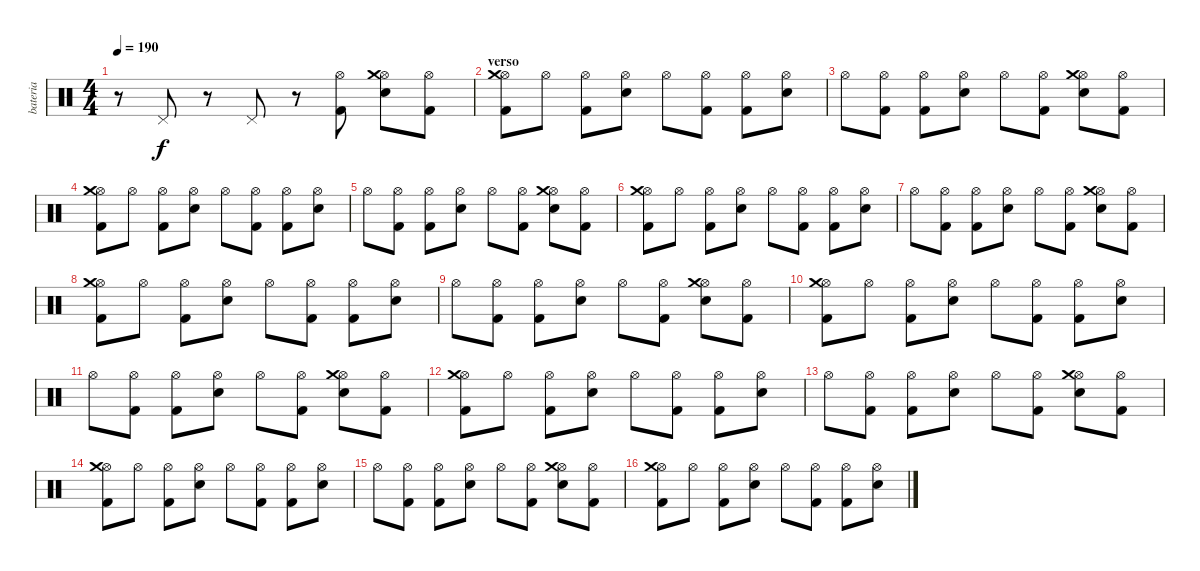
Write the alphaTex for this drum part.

\track ("bateria" "bateria") {instrument percussion}
\staff {score}
\articulation defaults
\ts (4 4)
\tempo 190
\clef neutral
\ks c
r.8{dy f} "Pedal Hi-Hat (hit)".8 r.8 "Pedal Hi-Hat (hit)".8 r.8 ("Hi-Hat (open)" "Kick (hit) 2").8 ("Hi-Hat (open)" "Electric Snare (hit)" "Crash medium (hit)").8 ("Hi-Hat (open)" "Kick (hit) 2").8 |
\section ("" "verso")
("Hi-Hat (open)" "Kick (hit) 2" "Crash medium (hit)").8 "Hi-Hat (open)".8 ("Hi-Hat (open)" "Kick (hit) 2").8 ("Hi-Hat (open)" "Electric Snare (hit)").8 "Hi-Hat (open)".8 ("Hi-Hat (open)" "Kick (hit) 2").8 ("Hi-Hat (open)" "Kick (hit) 2").8 ("Hi-Hat (open)" "Electric Snare (hit)").8 |
"Hi-Hat (open)".8 ("Hi-Hat (open)" "Kick (hit) 2").8 ("Hi-Hat (open)" "Kick (hit) 2").8 ("Hi-Hat (open)" "Electric Snare (hit)").8 "Hi-Hat (open)".8 ("Hi-Hat (open)" "Kick (hit) 2").8 ("Hi-Hat (open)" "Electric Snare (hit)" "Crash medium (hit)").8 ("Hi-Hat (open)" "Kick (hit) 2").8 |
("Hi-Hat (open)" "Kick (hit) 2" "Crash medium (hit)").8 "Hi-Hat (open)".8 ("Hi-Hat (open)" "Kick (hit) 2").8 ("Hi-Hat (open)" "Electric Snare (hit)").8 "Hi-Hat (open)".8 ("Hi-Hat (open)" "Kick (hit) 2").8 ("Hi-Hat (open)" "Kick (hit) 2").8 ("Hi-Hat (open)" "Electric Snare (hit)").8 |
"Hi-Hat (open)".8 ("Hi-Hat (open)" "Kick (hit) 2").8 ("Hi-Hat (open)" "Kick (hit) 2").8 ("Hi-Hat (open)" "Electric Snare (hit)").8 "Hi-Hat (open)".8 ("Hi-Hat (open)" "Kick (hit) 2").8 ("Hi-Hat (open)" "Electric Snare (hit)" "Crash medium (hit)").8 ("Hi-Hat (open)" "Kick (hit) 2").8 |
("Hi-Hat (open)" "Kick (hit) 2" "Crash medium (hit)").8 "Hi-Hat (open)".8 ("Hi-Hat (open)" "Kick (hit) 2").8 ("Hi-Hat (open)" "Electric Snare (hit)").8 "Hi-Hat (open)".8 ("Hi-Hat (open)" "Kick (hit) 2").8 ("Hi-Hat (open)" "Kick (hit) 2").8 ("Hi-Hat (open)" "Electric Snare (hit)").8 |
"Hi-Hat (open)".8 ("Hi-Hat (open)" "Kick (hit) 2").8 ("Hi-Hat (open)" "Kick (hit) 2").8 ("Hi-Hat (open)" "Electric Snare (hit)").8 "Hi-Hat (open)".8 ("Hi-Hat (open)" "Kick (hit) 2").8 ("Hi-Hat (open)" "Electric Snare (hit)" "Crash medium (hit)").8 ("Hi-Hat (open)" "Kick (hit) 2").8 |
("Hi-Hat (open)" "Kick (hit) 2" "Crash medium (hit)").8 "Hi-Hat (open)".8 ("Hi-Hat (open)" "Kick (hit) 2").8 ("Hi-Hat (open)" "Electric Snare (hit)").8 "Hi-Hat (open)".8 ("Hi-Hat (open)" "Kick (hit) 2").8 ("Hi-Hat (open)" "Kick (hit) 2").8 ("Hi-Hat (open)" "Electric Snare (hit)").8 |
"Hi-Hat (open)".8 ("Hi-Hat (open)" "Kick (hit) 2").8 ("Hi-Hat (open)" "Kick (hit) 2").8 ("Hi-Hat (open)" "Electric Snare (hit)").8 "Hi-Hat (open)".8 ("Hi-Hat (open)" "Kick (hit) 2").8 ("Hi-Hat (open)" "Electric Snare (hit)" "Crash medium (hit)").8 ("Hi-Hat (open)" "Kick (hit) 2").8 |
("Hi-Hat (open)" "Kick (hit) 2" "Crash medium (hit)").8 "Hi-Hat (open)".8 ("Hi-Hat (open)" "Kick (hit) 2").8 ("Hi-Hat (open)" "Electric Snare (hit)").8 "Hi-Hat (open)".8 ("Hi-Hat (open)" "Kick (hit) 2").8 ("Hi-Hat (open)" "Kick (hit) 2").8 ("Hi-Hat (open)" "Electric Snare (hit)").8 |
"Hi-Hat (open)".8 ("Hi-Hat (open)" "Kick (hit) 2").8 ("Hi-Hat (open)" "Kick (hit) 2").8 ("Hi-Hat (open)" "Electric Snare (hit)").8 "Hi-Hat (open)".8 ("Hi-Hat (open)" "Kick (hit) 2").8 ("Hi-Hat (open)" "Electric Snare (hit)" "Crash medium (hit)").8 ("Hi-Hat (open)" "Kick (hit) 2").8 |
("Hi-Hat (open)" "Kick (hit) 2" "Crash medium (hit)").8 "Hi-Hat (open)".8 ("Hi-Hat (open)" "Kick (hit) 2").8 ("Hi-Hat (open)" "Electric Snare (hit)").8 "Hi-Hat (open)".8 ("Hi-Hat (open)" "Kick (hit) 2").8 ("Hi-Hat (open)" "Kick (hit) 2").8 ("Hi-Hat (open)" "Electric Snare (hit)").8 |
"Hi-Hat (open)".8 ("Hi-Hat (open)" "Kick (hit) 2").8 ("Hi-Hat (open)" "Kick (hit) 2").8 ("Hi-Hat (open)" "Electric Snare (hit)").8 "Hi-Hat (open)".8 ("Hi-Hat (open)" "Kick (hit) 2").8 ("Hi-Hat (open)" "Electric Snare (hit)" "Crash medium (hit)").8 ("Hi-Hat (open)" "Kick (hit) 2").8 |
("Hi-Hat (open)" "Kick (hit) 2" "Crash medium (hit)").8 "Hi-Hat (open)".8 ("Hi-Hat (open)" "Kick (hit) 2").8 ("Hi-Hat (open)" "Electric Snare (hit)").8 "Hi-Hat (open)".8 ("Hi-Hat (open)" "Kick (hit) 2").8 ("Hi-Hat (open)" "Kick (hit) 2").8 ("Hi-Hat (open)" "Electric Snare (hit)").8 |
"Hi-Hat (open)".8 ("Hi-Hat (open)" "Kick (hit) 2").8 ("Hi-Hat (open)" "Kick (hit) 2").8 ("Hi-Hat (open)" "Electric Snare (hit)").8 "Hi-Hat (open)".8 ("Hi-Hat (open)" "Kick (hit) 2").8 ("Hi-Hat (open)" "Electric Snare (hit)" "Crash medium (hit)").8 ("Hi-Hat (open)" "Kick (hit) 2").8 |
("Hi-Hat (open)" "Kick (hit) 2" "Crash medium (hit)").8 "Hi-Hat (open)".8 ("Hi-Hat (open)" "Kick (hit) 2").8 ("Hi-Hat (open)" "Electric Snare (hit)").8 "Hi-Hat (open)".8 ("Hi-Hat (open)" "Kick (hit) 2").8 ("Hi-Hat (open)" "Kick (hit) 2").8 ("Hi-Hat (open)" "Electric Snare (hit)").8
